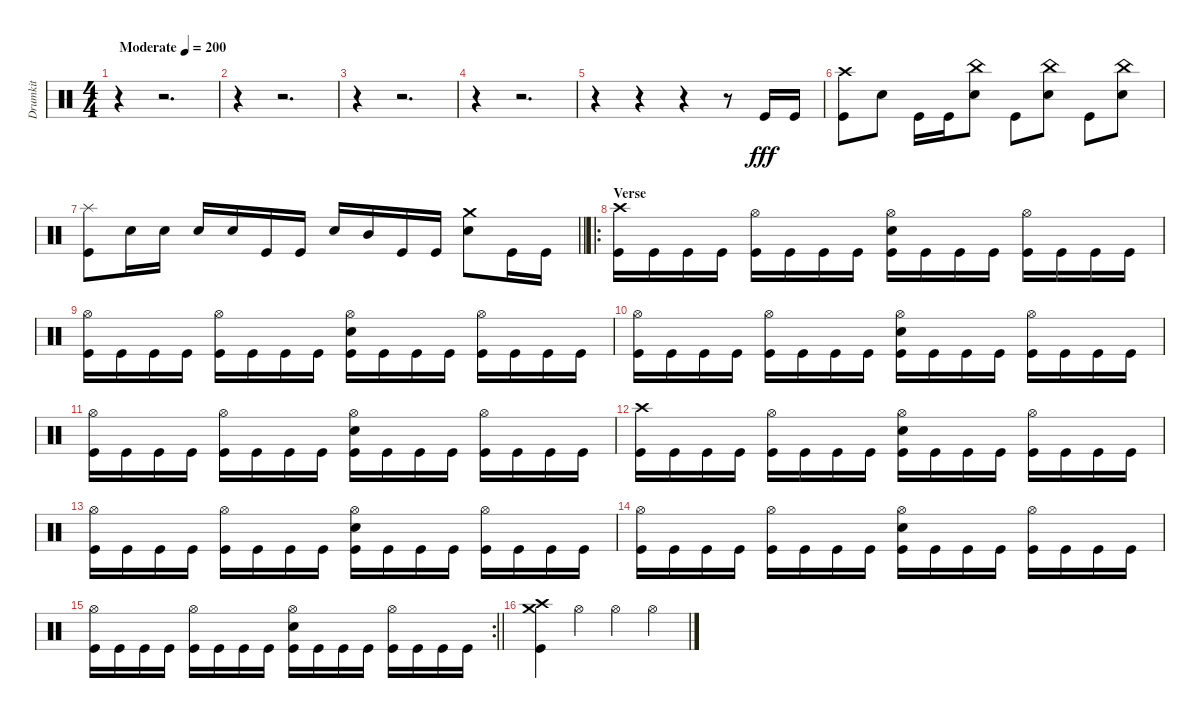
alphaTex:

\track ("Drumkit" "Drumkit") {instrument percussion}
\staff {score}
\articulation defaults
\ts (4 4)
\tempo (200 "Moderate")
\clef neutral
\ks c
r.4{dy fff} r.2{d} |
r.4 r.2{d} |
r.4 r.2{d} |
r.4 r.2{d} |
r.4 r.4 r.4 r.8 "Kick (hit)".16 "Kick (hit)".16 |
("Kick (hit)" "Crash high (hit)").8 "Snare (hit) 2".8 "Kick (hit)".16 "Kick (hit)".16 ("Snare (hit) 2" "China (hit)").8 "Kick (hit)".8 ("Snare (hit) 2" "China (hit)").8 "Kick (hit)".8 ("Snare (hit) 2" "China (hit)").8 |
\barLineRight lightlight
("Kick (hit)" "Splash (hit)").8 "Snare (hit) 2".16 "Snare (hit) 2".16 "Snare (hit) 2".16 "Snare (hit) 2".16 "Kick (hit)".16 "Kick (hit)".16 "Snare (hit) 2".16 "Mid Tom (hit)".16 "Kick (hit)".16 "Kick (hit)".16 ("Crash medium (hit)" "Snare (hit) 2").8 "Kick (hit)".16 "Kick (hit)".16 |
\ro
\section ("" "Verse")
("Kick (hit)" "Crash high (hit)").16 "Kick (hit)".16 "Kick (hit)".16 "Kick (hit)".16 ("Kick (hit)" "Hi-Hat (open)").16 "Kick (hit)".16 "Kick (hit)".16 "Kick (hit)".16 ("Kick (hit)" "Hi-Hat (open)" "Snare (hit) 2").16 "Kick (hit)".16 "Kick (hit)".16 "Kick (hit)".16 ("Kick (hit)" "Hi-Hat (open)").16 "Kick (hit)".16 "Kick (hit)".16 "Kick (hit)".16 |
("Kick (hit)" "Hi-Hat (open)").16 "Kick (hit)".16 "Kick (hit)".16 "Kick (hit)".16 ("Kick (hit)" "Hi-Hat (open)").16 "Kick (hit)".16 "Kick (hit)".16 "Kick (hit)".16 ("Kick (hit)" "Hi-Hat (open)" "Snare (hit) 2").16 "Kick (hit)".16 "Kick (hit)".16 "Kick (hit)".16 ("Kick (hit)" "Hi-Hat (open)").16 "Kick (hit)".16 "Kick (hit)".16 "Kick (hit)".16 |
("Kick (hit)" "Hi-Hat (open)").16 "Kick (hit)".16 "Kick (hit)".16 "Kick (hit)".16 ("Kick (hit)" "Hi-Hat (open)").16 "Kick (hit)".16 "Kick (hit)".16 "Kick (hit)".16 ("Kick (hit)" "Hi-Hat (open)" "Snare (hit) 2").16 "Kick (hit)".16 "Kick (hit)".16 "Kick (hit)".16 ("Kick (hit)" "Hi-Hat (open)").16 "Kick (hit)".16 "Kick (hit)".16 "Kick (hit)".16 |
("Kick (hit)" "Hi-Hat (open)").16 "Kick (hit)".16 "Kick (hit)".16 "Kick (hit)".16 ("Kick (hit)" "Hi-Hat (open)").16 "Kick (hit)".16 "Kick (hit)".16 "Kick (hit)".16 ("Kick (hit)" "Hi-Hat (open)" "Snare (hit) 2").16 "Kick (hit)".16 "Kick (hit)".16 "Kick (hit)".16 ("Kick (hit)" "Hi-Hat (open)").16 "Kick (hit)".16 "Kick (hit)".16 "Kick (hit)".16 |
("Kick (hit)" "Crash high (hit)").16 "Kick (hit)".16 "Kick (hit)".16 "Kick (hit)".16 ("Kick (hit)" "Hi-Hat (open)").16 "Kick (hit)".16 "Kick (hit)".16 "Kick (hit)".16 ("Kick (hit)" "Hi-Hat (open)" "Snare (hit) 2").16 "Kick (hit)".16 "Kick (hit)".16 "Kick (hit)".16 ("Kick (hit)" "Hi-Hat (open)").16 "Kick (hit)".16 "Kick (hit)".16 "Kick (hit)".16 |
("Kick (hit)" "Hi-Hat (open)").16 "Kick (hit)".16 "Kick (hit)".16 "Kick (hit)".16 ("Kick (hit)" "Hi-Hat (open)").16 "Kick (hit)".16 "Kick (hit)".16 "Kick (hit)".16 ("Kick (hit)" "Hi-Hat (open)" "Snare (hit) 2").16 "Kick (hit)".16 "Kick (hit)".16 "Kick (hit)".16 ("Kick (hit)" "Hi-Hat (open)").16 "Kick (hit)".16 "Kick (hit)".16 "Kick (hit)".16 |
("Kick (hit)" "Hi-Hat (open)").16 "Kick (hit)".16 "Kick (hit)".16 "Kick (hit)".16 ("Kick (hit)" "Hi-Hat (open)").16 "Kick (hit)".16 "Kick (hit)".16 "Kick (hit)".16 ("Kick (hit)" "Hi-Hat (open)" "Snare (hit) 2").16 "Kick (hit)".16 "Kick (hit)".16 "Kick (hit)".16 ("Kick (hit)" "Hi-Hat (open)").16 "Kick (hit)".16 "Kick (hit)".16 "Kick (hit)".16 |
\rc 2
\barLineRight lightlight
("Kick (hit)" "Hi-Hat (open)").16 "Kick (hit)".16 "Kick (hit)".16 "Kick (hit)".16 ("Kick (hit)" "Hi-Hat (open)").16 "Kick (hit)".16 "Kick (hit)".16 "Kick (hit)".16 ("Kick (hit)" "Hi-Hat (open)" "Snare (hit) 2").16 "Kick (hit)".16 "Kick (hit)".16 "Kick (hit)".16 ("Kick (hit)" "Hi-Hat (open)").16 "Kick (hit)".16 "Kick (hit)".16 "Kick (hit)".16 |
("Crash medium (hit)" "Crash high (hit)" "Kick (hit)").4 "Hi-Hat (open)".4 "Hi-Hat (open)".4 "Hi-Hat (open)".4
